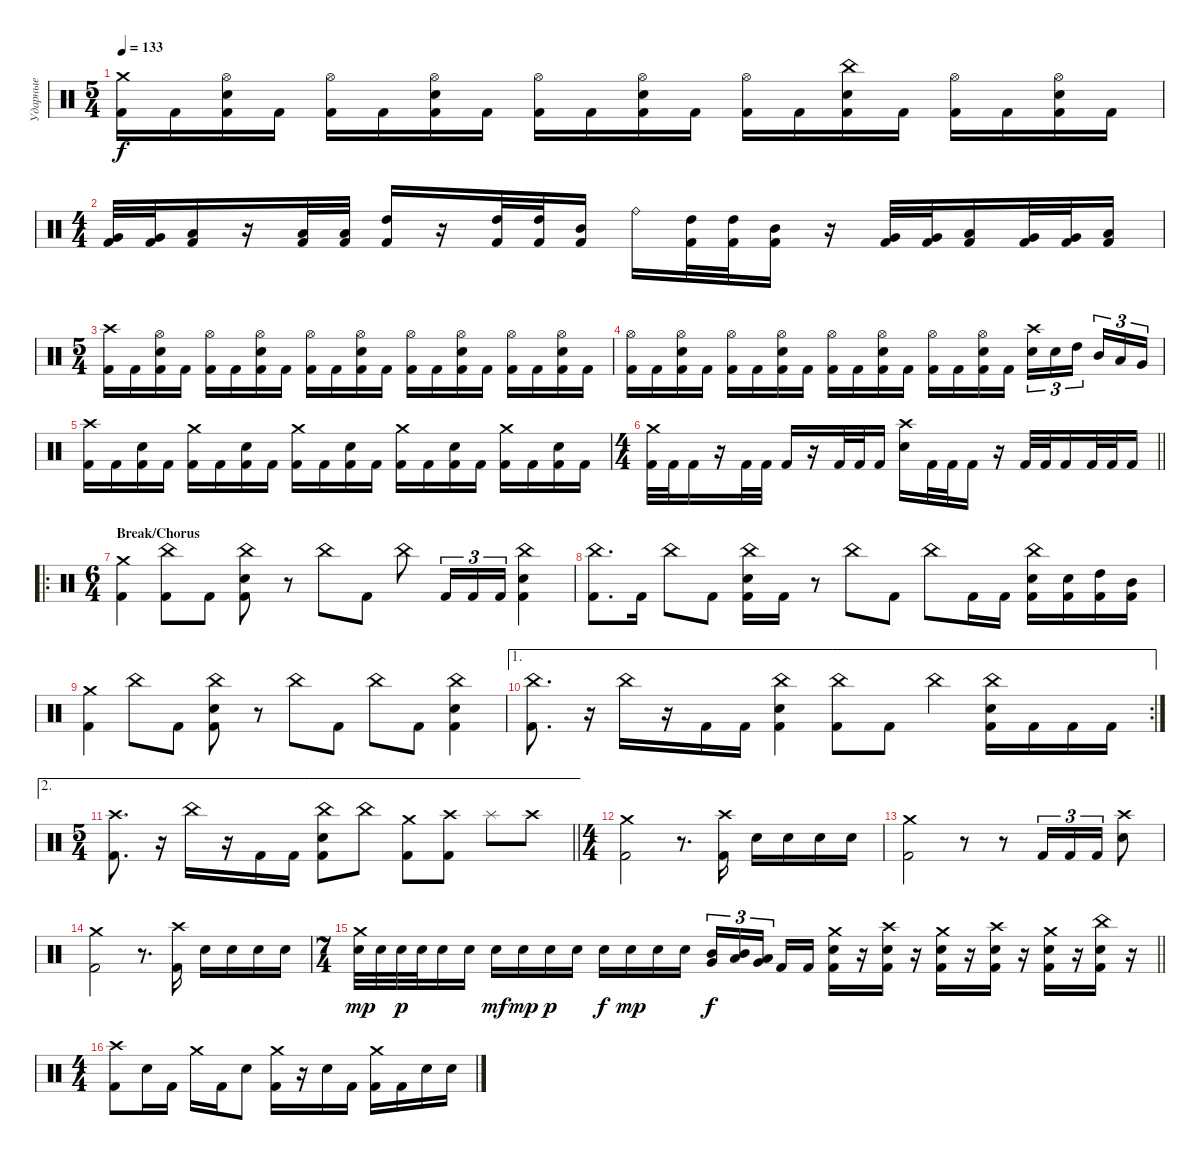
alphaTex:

\track ("Ударные" "Ударные") {instrument percussion}
\staff {score}
\articulation defaults
\ts (5 4)
\tempo 133
\clef neutral
\ks c
("Crash medium (hit)" "Kick (hit) 2").16{dy f} "Kick (hit) 2".16 ("Hi-Hat (open)" "Snare (hit) 2" "Kick (hit) 2").16 "Kick (hit) 2".16 ("Hi-Hat (open)" "Kick (hit) 2").16 "Kick (hit) 2".16 ("Hi-Hat (open)" "Snare (hit) 2" "Kick (hit) 2").16 "Kick (hit) 2".16 ("Hi-Hat (open)" "Kick (hit) 2").16 "Kick (hit) 2".16 ("Hi-Hat (open)" "Snare (hit) 2" "Kick (hit) 2").16 "Kick (hit) 2".16 ("Hi-Hat (open)" "Kick (hit) 2").16 "Kick (hit) 2".16 ("China (hit)" "Snare (hit) 2" "Kick (hit) 2").16 "Kick (hit) 2".16 ("Hi-Hat (open)" "Kick (hit) 2").16 "Kick (hit) 2".16 ("Hi-Hat (open)" "Snare (hit) 2" "Kick (hit) 2").16 "Kick (hit) 2".16 |
\ts (4 4)
("Very Low Tom (hit)" "Kick (hit) 2").32 ("Very Low Tom (hit)" "Kick (hit) 2").32 ("Low Floor Tom (hit)" "Kick (hit) 2").16 r.16 ("Low Tom (hit)" "Kick (hit) 2").32 ("Low Tom (hit)" "Kick (hit) 2").32 ("High Tom (hit)" "Kick (hit) 2").16 r.16 ("High Tom (hit)" "Kick (hit) 2").32 ("High Tom (hit)" "Kick (hit) 2").32 ("Mid Tom (hit)" "Kick (hit) 2").16 "Ride (bell)".16 ("High Tom (hit)" "Kick (hit) 2").32 ("High Tom (hit)" "Kick (hit) 2").32 ("Mid Tom (hit)" "Kick (hit) 2").16 r.16 ("Very Low Tom (hit)" "Kick (hit) 2").32 ("Very Low Tom (hit)" "Kick (hit) 2").32 ("Low Floor Tom (hit)" "Kick (hit) 2").16 ("Very Low Tom (hit)" "Kick (hit) 2").32 ("Very Low Tom (hit)" "Kick (hit) 2").32 ("Low Floor Tom (hit)" "Kick (hit) 2").16 |
\ts (5 4)
("Crash high (hit)" "Kick (hit) 2").16 "Kick (hit) 2".16 ("Hi-Hat (open)" "Snare (hit) 2" "Kick (hit) 2").16 "Kick (hit) 2".16 ("Hi-Hat (open)" "Kick (hit) 2").16 "Kick (hit) 2".16 ("Hi-Hat (open)" "Snare (hit) 2" "Kick (hit) 2").16 "Kick (hit) 2".16 ("Hi-Hat (open)" "Kick (hit) 2").16 "Kick (hit) 2".16 ("Hi-Hat (open)" "Snare (hit) 2" "Kick (hit) 2").16 "Kick (hit) 2".16 ("Hi-Hat (open)" "Kick (hit) 2").16 "Kick (hit) 2".16 ("Hi-Hat (open)" "Snare (hit) 2" "Kick (hit) 2").16 "Kick (hit) 2".16 ("Hi-Hat (open)" "Kick (hit) 2").16 "Kick (hit) 2".16 ("Hi-Hat (open)" "Snare (hit) 2" "Kick (hit) 2").16 "Kick (hit) 2".16 |
("Hi-Hat (open)" "Kick (hit) 2").16 "Kick (hit) 2".16 ("Hi-Hat (open)" "Snare (hit) 2" "Kick (hit) 2").16 "Kick (hit) 2".16 ("Hi-Hat (open)" "Kick (hit) 2").16 "Kick (hit) 2".16 ("Hi-Hat (open)" "Snare (hit) 2" "Kick (hit) 2").16 "Kick (hit) 2".16 ("Hi-Hat (open)" "Kick (hit) 2").16 "Kick (hit) 2".16 ("Hi-Hat (open)" "Snare (hit) 2" "Kick (hit) 2").16 "Kick (hit) 2".16 ("Hi-Hat (open)" "Kick (hit) 2").16 "Kick (hit) 2".16 ("Hi-Hat (open)" "Snare (hit) 2" "Kick (hit) 2").16 "Kick (hit) 2".16 ("Crash high (hit)" "Snare (hit) 2").16{tu (3 2)} "Snare (hit) 2".16{tu (3 2)} "High Tom (hit)".16{tu (3 2) beam splitsecondary} "Mid Tom (hit)".16{tu (3 2)} "Low Tom (hit)".16{tu (3 2)} "Very Low Tom (hit)".16{tu (3 2)} |
("Crash high (hit)" "Kick (hit) 2").16 "Kick (hit) 2".16 ("Snare (hit) 2" "Kick (hit) 2").16 "Kick (hit) 2".16 ("Crash medium (hit)" "Kick (hit) 2").16 "Kick (hit) 2".16 ("Snare (hit) 2" "Kick (hit) 2").16 "Kick (hit) 2".16 ("Crash medium (hit)" "Kick (hit) 2").16 "Kick (hit) 2".16 ("Snare (hit) 2" "Kick (hit) 2").16 "Kick (hit) 2".16 ("Crash medium (hit)" "Kick (hit) 2").16 "Kick (hit) 2".16 ("Snare (hit) 2" "Kick (hit) 2").16 "Kick (hit) 2".16 ("Crash medium (hit)" "Kick (hit) 2").16 "Kick (hit) 2".16 ("Snare (hit) 2" "Kick (hit) 2").16 "Kick (hit) 2".16 |
\ts (4 4)
\barLineRight lightlight
("Crash medium (hit)" "Kick (hit) 2").32 "Kick (hit) 2".32 "Kick (hit) 2".16 r.16 "Kick (hit) 2".32 "Kick (hit) 2".32 "Kick (hit) 2".16 r.16 "Kick (hit) 2".32 "Kick (hit) 2".32 "Kick (hit) 2".16 ("Crash high (hit)" "Snare (hit) 2").16 "Kick (hit) 2".32 "Kick (hit) 2".32 "Kick (hit) 2".16 r.16 "Kick (hit) 2".32 "Kick (hit) 2".32 "Kick (hit) 2".16 "Kick (hit) 2".32 "Kick (hit) 2".32 "Kick (hit) 2".16 |
\ro
\ts (6 4)
\section ("" "Break/Chorus")
("Crash medium (hit)" "Kick (hit) 2").4 ("China (hit)" "Kick (hit) 2").8 "Kick (hit) 2".8 ("China (hit)" "Snare (hit) 2" "Kick (hit) 2").8 r.8 "China (hit)".8 "Kick (hit) 2".8 "China (hit)".8 "Kick (hit) 2".16{tu (3 2)} "Kick (hit) 2".16{tu (3 2)} "Kick (hit) 2".16{tu (3 2)} ("China (hit)" "Snare (hit) 2" "Kick (hit) 2").4 |
("China (hit)" "Kick (hit) 2").8{d} "Kick (hit) 2".16 "China (hit)".8 "Kick (hit) 2".8 ("China (hit)" "Snare (hit) 2" "Kick (hit) 2").16 "Kick (hit) 2".16 r.8 "China (hit)".8 "Kick (hit) 2".8 "China (hit)".8 "Kick (hit) 2".16 "Kick (hit) 2".16 ("China (hit)" "Snare (hit) 2" "Kick (hit) 2").16 ("Snare (hit) 2" "Kick (hit) 2").16 ("High Tom (hit)" "Kick (hit) 2").16 ("Mid Tom (hit)" "Kick (hit) 2").16 |
("Crash medium (hit)" "Kick (hit) 2").4 "China (hit)".8 "Kick (hit) 2".8 ("China (hit)" "Snare (hit) 2" "Kick (hit) 2").8 r.8 "China (hit)".8 "Kick (hit) 2".8 "China (hit)".8 "Kick (hit) 2".8 ("China (hit)" "Snare (hit) 2" "Kick (hit) 2").4 |
\ae 1
\rc 2
("China (hit)" "Kick (hit) 2").8{d} r.16 "China (hit)".16 r.16 "Kick (hit) 2".16 "Kick (hit) 2".16 ("China (hit)" "Snare (hit) 2" "Kick (hit) 2").4 ("China (hit)" "Kick (hit) 2").8 "Kick (hit) 2".8 "China (hit)".4 ("China (hit)" "Snare (hit) 2" "Kick (hit) 2").16 "Kick (hit) 2".16 "Kick (hit) 2".16 "Kick (hit) 2".16 |
\ae 2
\ts (5 4)
\barLineRight lightlight
("Crash high (hit)" "Kick (hit) 2").8{d} r.16 "China (hit)".16 r.16 "Kick (hit) 2".16 "Kick (hit) 2".16 ("China (hit)" "Snare (hit) 2" "Kick (hit) 2").8 "China (hit)".8 ("Crash medium (hit)" "Kick (hit) 2").8 ("Crash high (hit)" "Kick (hit) 2").8 "Splash (hit)".8 "Crash high (hit)".8 |
\ts (4 4)
("Crash medium (hit)" "Kick (hit) 2").2 r.8{d} ("Crash high (hit)" "Kick (hit) 2").16 "Snare (hit) 2".16 "Snare (hit) 2".16 "Snare (hit) 2".16 "Snare (hit) 2".16 |
("Crash medium (hit)" "Kick (hit) 2").2 r.8 r.8 "Kick (hit) 2".16{tu (3 2)} "Kick (hit) 2".16{tu (3 2)} "Kick (hit) 2".16{tu (3 2)} ("Crash high (hit)" "Snare (hit) 2").8 |
("Crash medium (hit)" "Kick (hit) 2").2 r.8{d} ("Crash high (hit)" "Kick (hit) 2").16 "Snare (hit) 2".16 "Snare (hit) 2".16 "Snare (hit) 2".16 "Snare (hit) 2".16 |
\ts (7 4)
\barLineRight lightlight
("Crash medium (hit)" "Snare (hit) 2").32{dy mp} "Snare (hit) 2".32 "Snare (hit) 2".32{dy p} "Snare (hit) 2".32 "Snare (hit) 2".16 "Snare (hit) 2".16 "Snare (hit) 2".16{dy mf} "Snare (hit) 2".16{dy mp} "Snare (hit) 2".16{dy p} "Snare (hit) 2".16 "Snare (hit) 2".16{dy f} "Snare (hit) 2".16{dy mp} "Snare (hit) 2".16 "Snare (hit) 2".16 ("Very Low Tom (hit)" "Mid Tom (hit)").16{tu (3 2) dy f} ("Mid Tom (hit)" "Low Tom (hit)").16{tu (3 2)} ("Low Tom (hit)" "Very Low Tom (hit)").16{tu (3 2) beam splitsecondary} "Kick (hit) 2".16 "Kick (hit) 2".16 ("Crash medium (hit)" "Snare (hit) 2" "Kick (hit) 2").16 r.16 ("Crash high (hit)" "Snare (hit) 2" "Kick (hit) 2").16 r.16 ("Crash medium (hit)" "Snare (hit) 2" "Kick (hit) 2").16 r.16 ("Crash high (hit)" "Snare (hit) 2" "Kick (hit) 2").16 r.16 ("Crash medium (hit)" "Snare (hit) 2" "Kick (hit) 2").16 r.16 ("China (hit)" "Snare (hit) 2" "Kick (hit) 2").16 r.16 |
\ts (4 4)
("Crash high (hit)" "Kick (hit) 2").8 "Snare (hit) 2".16 "Kick (hit) 2".16 "Crash medium (hit)".16 "Kick (hit) 2".16 "Snare (hit) 2".8 ("Crash medium (hit)" "Kick (hit) 2").16 r.16 "Snare (hit) 2".16 "Kick (hit) 2".16 ("Crash medium (hit)" "Kick (hit) 2").16 "Kick (hit) 2".16 "Snare (hit) 2".16 "Snare (hit) 2".16
